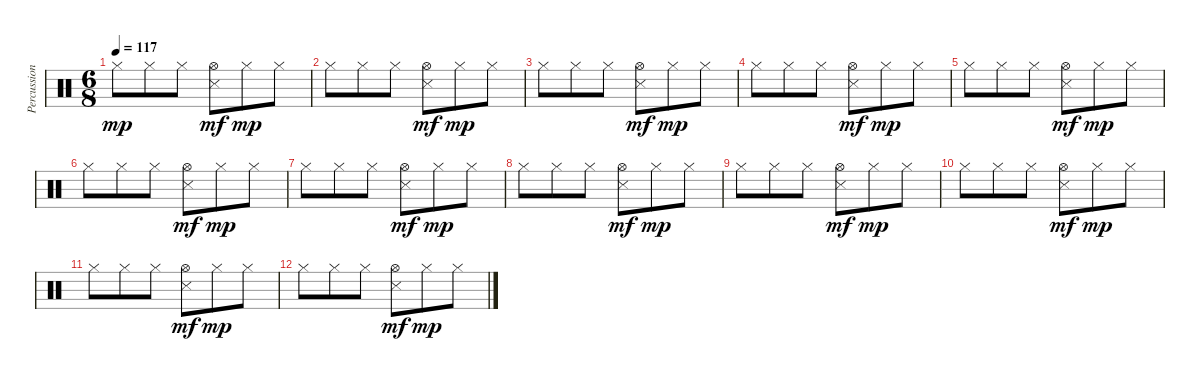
\track ("Percussions" "Percussion") {instrument percussion}
\staff {score}
\articulation defaults
\ts (6 8)
\tempo 117
\clef neutral
\ks c "Hi-Hat (closed)".8{dy mp} "Hi-Hat (closed)".8 "Hi-Hat (closed)".8
("Hi-Hat (open)" "Snare (side stick) 3").8{dy mf} "Hi-Hat (closed)".8{dy mp} "Hi-Hat (closed)".8 |
"Hi-Hat (closed)".8 "Hi-Hat (closed)".8 "Hi-Hat (closed)".8 ("Hi-Hat (open)" "Snare (side stick) 3").8{dy mf} "Hi-Hat (closed)".8{dy mp} "Hi-Hat (closed)".8 |
"Hi-Hat (closed)".8 "Hi-Hat (closed)".8 "Hi-Hat (closed)".8 ("Hi-Hat (open)" "Snare (side stick) 3").8{dy mf} "Hi-Hat (closed)".8{dy mp} "Hi-Hat (closed)".8 |
"Hi-Hat (closed)".8 "Hi-Hat (closed)".8 "Hi-Hat (closed)".8 ("Hi-Hat (open)" "Snare (side stick) 3").8{dy mf} "Hi-Hat (closed)".8{dy mp} "Hi-Hat (closed)".8 |
"Hi-Hat (closed)".8 "Hi-Hat (closed)".8 "Hi-Hat (closed)".8 ("Hi-Hat (open)" "Snare (side stick) 3").8{dy mf} "Hi-Hat (closed)".8{dy mp} "Hi-Hat (closed)".8 |
"Hi-Hat (closed)".8 "Hi-Hat (closed)".8 "Hi-Hat (closed)".8 ("Hi-Hat (open)" "Snare (side stick) 3").8{dy mf} "Hi-Hat (closed)".8{dy mp} "Hi-Hat (closed)".8 |
"Hi-Hat (closed)".8{volume 9} "Hi-Hat (closed)".8 "Hi-Hat (closed)".8 ("Hi-Hat (open)" "Snare (side stick) 3").8{dy mf} "Hi-Hat (closed)".8{dy mp} "Hi-Hat (closed)".8 |
"Hi-Hat (closed)".8{volume 7} "Hi-Hat (closed)".8 "Hi-Hat (closed)".8 ("Hi-Hat (open)" "Snare (side stick) 3").8{dy mf} "Hi-Hat (closed)".8{dy mp} "Hi-Hat (closed)".8 |
"Hi-Hat (closed)".8{volume 5} "Hi-Hat (closed)".8 "Hi-Hat (closed)".8 ("Hi-Hat (open)" "Snare (side stick) 3").8{dy mf} "Hi-Hat (closed)".8{dy mp} "Hi-Hat (closed)".8 |
"Hi-Hat (closed)".8{volume 4} "Hi-Hat (closed)".8 "Hi-Hat (closed)".8 ("Hi-Hat (open)" "Snare (side stick) 3").8{dy mf} "Hi-Hat (closed)".8{dy mp} "Hi-Hat (closed)".8 |
"Hi-Hat (closed)".8{volume 2} "Hi-Hat (closed)".8 "Hi-Hat (closed)".8 ("Hi-Hat (open)" "Snare (side stick) 3").8{dy mf} "Hi-Hat (closed)".8{dy mp} "Hi-Hat (closed)".8 |
"Hi-Hat (closed)".8{volume 0} "Hi-Hat (closed)".8 "Hi-Hat (closed)".8 ("Hi-Hat (open)" "Snare (side stick) 3").8{dy mf} "Hi-Hat (closed)".8{dy mp} "Hi-Hat (closed)".8
